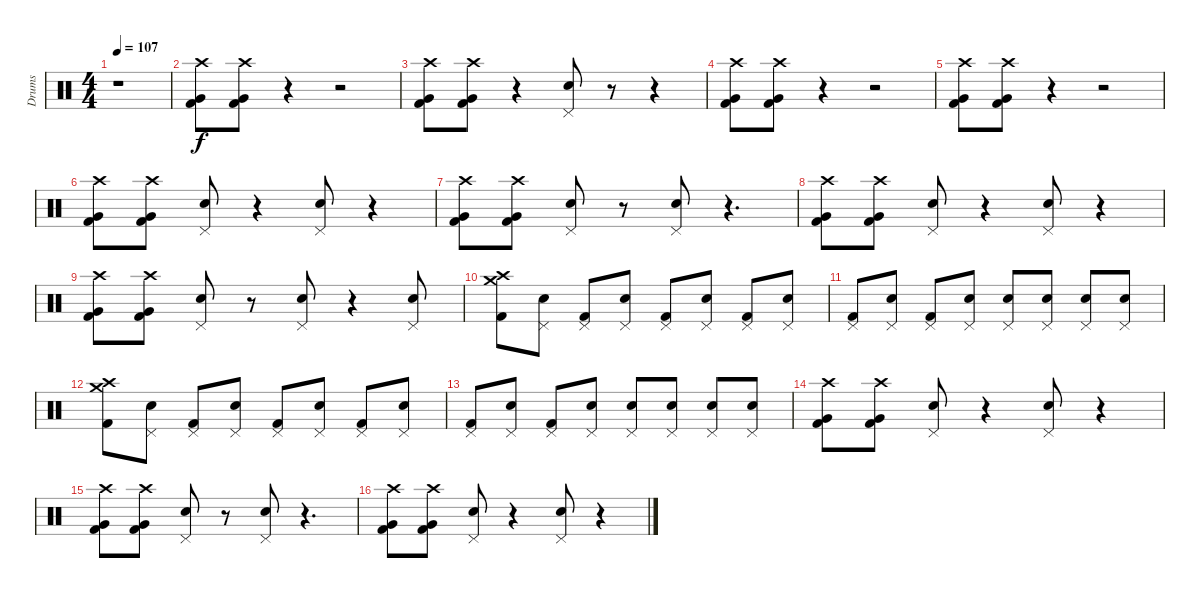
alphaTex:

\track ("Drums" "Drums") {instrument percussion}
\staff {score}
\articulation defaults
\ts (4 4)
\tempo 107
\clef neutral
\ks c
r.1{dy f} |
("Crash high (hit)" "Very Low Tom (hit)" "Kick (hit) 2").8 ("Crash high (hit)" "Very Low Tom (hit)" "Kick (hit) 2").8 r.4 r.2 |
("Crash high (hit)" "Very Low Tom (hit)" "Kick (hit) 2").8 ("Crash high (hit)" "Very Low Tom (hit)" "Kick (hit) 2").8 r.4 ("Pedal Hi-Hat (hit)" "Electric Snare (hit)").8 r.8 r.4 |
("Crash high (hit)" "Very Low Tom (hit)" "Kick (hit) 2").8 ("Crash high (hit)" "Very Low Tom (hit)" "Kick (hit) 2").8 r.4 r.2 |
("Crash high (hit)" "Very Low Tom (hit)" "Kick (hit) 2").8 ("Crash high (hit)" "Very Low Tom (hit)" "Kick (hit) 2").8 r.4 r.2 |
("Crash high (hit)" "Very Low Tom (hit)" "Kick (hit) 2").8 ("Crash high (hit)" "Very Low Tom (hit)" "Kick (hit) 2").8 ("Pedal Hi-Hat (hit)" "Electric Snare (hit)").8 r.4 ("Pedal Hi-Hat (hit)" "Electric Snare (hit)").8 r.4 |
("Crash high (hit)" "Very Low Tom (hit)" "Kick (hit) 2").8 ("Crash high (hit)" "Very Low Tom (hit)" "Kick (hit) 2").8 ("Pedal Hi-Hat (hit)" "Electric Snare (hit)").8 r.8 ("Pedal Hi-Hat (hit)" "Electric Snare (hit)").8 r.4{d} |
("Crash high (hit)" "Very Low Tom (hit)" "Kick (hit) 2").8 ("Crash high (hit)" "Very Low Tom (hit)" "Kick (hit) 2").8 ("Pedal Hi-Hat (hit)" "Electric Snare (hit)").8 r.4 ("Pedal Hi-Hat (hit)" "Electric Snare (hit)").8 r.4 |
("Crash high (hit)" "Very Low Tom (hit)" "Kick (hit) 2").8 ("Crash high (hit)" "Very Low Tom (hit)" "Kick (hit) 2").8 ("Pedal Hi-Hat (hit)" "Electric Snare (hit)").8 r.8 ("Pedal Hi-Hat (hit)" "Electric Snare (hit)").8 r.4 ("Pedal Hi-Hat (hit)" "Electric Snare (hit)").8 |
("Crash high (hit)" "Crash medium (hit)" "Kick (hit) 2").8 ("Pedal Hi-Hat (hit)" "Electric Snare (hit)").8 ("Pedal Hi-Hat (hit)" "Kick (hit) 2").8 ("Pedal Hi-Hat (hit)" "Electric Snare (hit)").8 ("Pedal Hi-Hat (hit)" "Kick (hit) 2").8 ("Pedal Hi-Hat (hit)" "Electric Snare (hit)").8 ("Pedal Hi-Hat (hit)" "Kick (hit) 2").8 ("Pedal Hi-Hat (hit)" "Electric Snare (hit)").8 |
("Pedal Hi-Hat (hit)" "Kick (hit) 2").8 ("Pedal Hi-Hat (hit)" "Electric Snare (hit)").8 ("Pedal Hi-Hat (hit)" "Kick (hit) 2").8 ("Pedal Hi-Hat (hit)" "Electric Snare (hit)").8 ("Pedal Hi-Hat (hit)" "Electric Snare (hit)").8 ("Pedal Hi-Hat (hit)" "Electric Snare (hit)").8 ("Pedal Hi-Hat (hit)" "Electric Snare (hit)").8 ("Pedal Hi-Hat (hit)" "Electric Snare (hit)").8 |
("Crash high (hit)" "Crash medium (hit)" "Kick (hit) 2").8 ("Pedal Hi-Hat (hit)" "Electric Snare (hit)").8 ("Pedal Hi-Hat (hit)" "Kick (hit) 2").8 ("Pedal Hi-Hat (hit)" "Electric Snare (hit)").8 ("Pedal Hi-Hat (hit)" "Kick (hit) 2").8 ("Pedal Hi-Hat (hit)" "Electric Snare (hit)").8 ("Pedal Hi-Hat (hit)" "Kick (hit) 2").8 ("Pedal Hi-Hat (hit)" "Electric Snare (hit)").8 |
("Pedal Hi-Hat (hit)" "Kick (hit) 2").8 ("Pedal Hi-Hat (hit)" "Electric Snare (hit)").8 ("Pedal Hi-Hat (hit)" "Kick (hit) 2").8 ("Pedal Hi-Hat (hit)" "Electric Snare (hit)").8 ("Pedal Hi-Hat (hit)" "Electric Snare (hit)").8 ("Pedal Hi-Hat (hit)" "Electric Snare (hit)").8 ("Pedal Hi-Hat (hit)" "Electric Snare (hit)").8 ("Pedal Hi-Hat (hit)" "Electric Snare (hit)").8 |
("Crash high (hit)" "Very Low Tom (hit)" "Kick (hit) 2").8 ("Crash high (hit)" "Very Low Tom (hit)" "Kick (hit) 2").8 ("Pedal Hi-Hat (hit)" "Electric Snare (hit)").8 r.4 ("Pedal Hi-Hat (hit)" "Electric Snare (hit)").8 r.4 |
("Crash high (hit)" "Very Low Tom (hit)" "Kick (hit) 2").8 ("Crash high (hit)" "Very Low Tom (hit)" "Kick (hit) 2").8 ("Pedal Hi-Hat (hit)" "Electric Snare (hit)").8 r.8 ("Pedal Hi-Hat (hit)" "Electric Snare (hit)").8 r.4{d} |
("Crash high (hit)" "Very Low Tom (hit)" "Kick (hit) 2").8 ("Crash high (hit)" "Very Low Tom (hit)" "Kick (hit) 2").8 ("Pedal Hi-Hat (hit)" "Electric Snare (hit)").8 r.4 ("Pedal Hi-Hat (hit)" "Electric Snare (hit)").8 r.4
